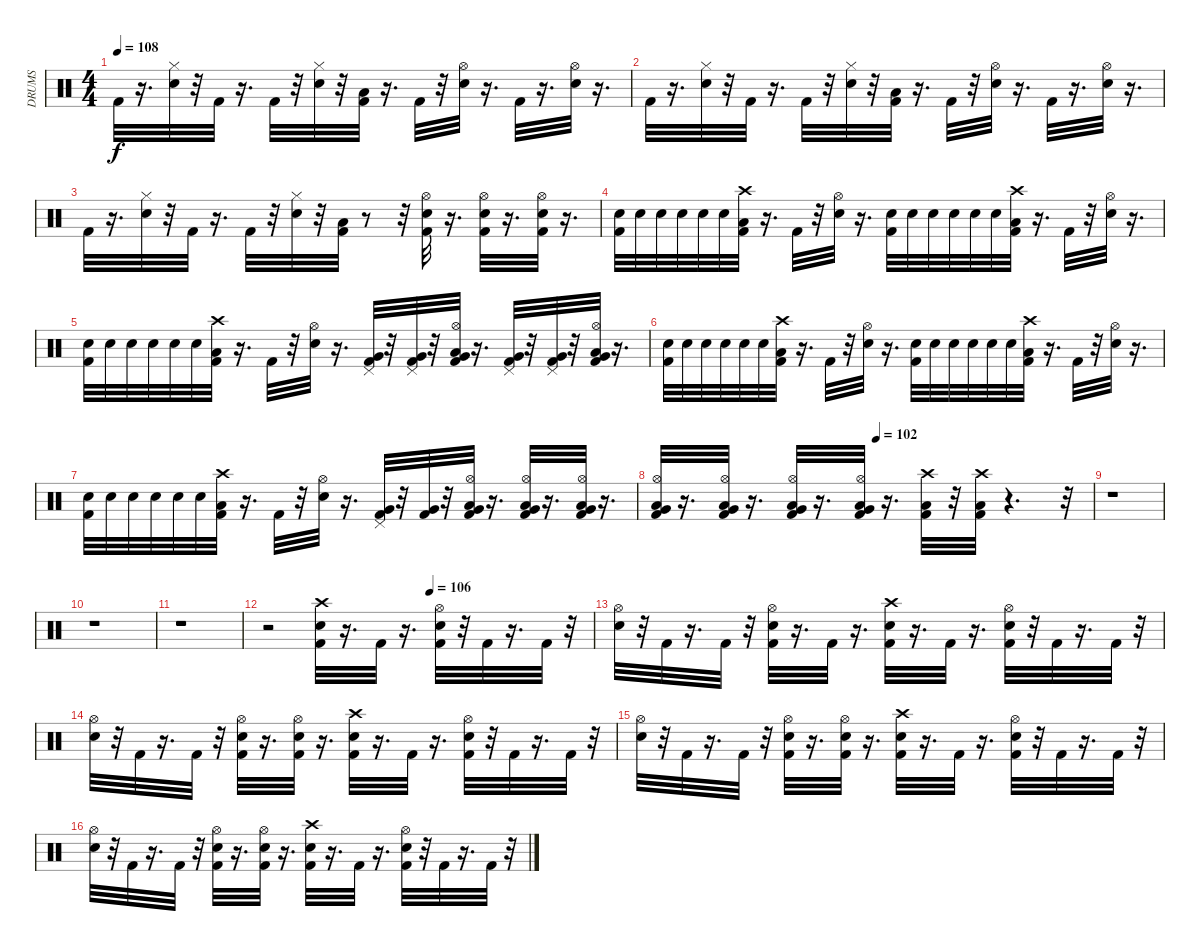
\track ("DRUMS" "DRUMS") {instrument percussion}
\staff {score}
\articulation defaults
\ts (4 4)
\tempo 108
\clef neutral
\ks c "Kick (hit) 2".32{dy f}
r.16{d} ("Electric Snare (hit)" "Hi-Hat (closed)").32 r.32 "Kick (hit) 2".32 r.16{d} "Kick (hit) 2".32 r.32 ("Electric Snare (hit)" "Hi-Hat (closed)").32 r.32 ("Kick (hit) 2" "Low Tom (hit)").32 r.16{d} "Kick (hit) 2".32 r.32 ("Electric Snare (hit)" "Hi-Hat (open)").32 r.16{d} "Kick (hit) 2".32 r.16{d} ("Electric Snare (hit)" "Hi-Hat (open)").32 r.16{d} |
"Kick (hit) 2".32 r.16{d} ("Electric Snare (hit)" "Hi-Hat (closed)").32 r.32 "Kick (hit) 2".32 r.16{d} "Kick (hit) 2".32 r.32 ("Electric Snare (hit)" "Hi-Hat (closed)").32 r.32 ("Kick (hit) 2" "Low Tom (hit)").32 r.16{d} "Kick (hit) 2".32 r.32 ("Electric Snare (hit)" "Hi-Hat (open)").32 r.16{d} "Kick (hit) 2".32 r.16{d} ("Electric Snare (hit)" "Hi-Hat (open)").32 r.16{d} |
"Kick (hit) 2".32 r.16{d} ("Electric Snare (hit)" "Hi-Hat (closed)").32 r.32 "Kick (hit) 2".32 r.16{d} "Kick (hit) 2".32 r.32 ("Electric Snare (hit)" "Hi-Hat (closed)").32 r.32 ("Kick (hit) 2" "Low Tom (hit)").32 r.8 r.32 ("Electric Snare (hit)" "Hi-Hat (open)" "Kick (hit) 2").32 r.16{d} ("Kick (hit) 2" "Electric Snare (hit)" "Hi-Hat (open)").32 r.16{d} ("Electric Snare (hit)" "Hi-Hat (open)" "Kick (hit) 2").32 r.16{d} |
("Kick (hit) 2" "Electric Snare (hit)").32 "Electric Snare (hit)".32 "Electric Snare (hit)".32 "Electric Snare (hit)".32 "Electric Snare (hit)".32 "Electric Snare (hit)".32 ("Kick (hit) 2" "Crash high (hit)" "Low Tom (hit)").32 r.16{d} "Kick (hit) 2".32 r.32 ("Electric Snare (hit)" "Hi-Hat (open)").32 r.16{d} ("Kick (hit) 2" "Electric Snare (hit)").32 "Electric Snare (hit)".32 "Electric Snare (hit)".32 "Electric Snare (hit)".32 "Electric Snare (hit)".32 "Electric Snare (hit)".32 ("Kick (hit) 2" "Crash high (hit)" "Low Tom (hit)").32 r.16{d} "Kick (hit) 2".32 r.32 ("Electric Snare (hit)" "Hi-Hat (open)").32 r.16{d} |
("Kick (hit) 2" "Electric Snare (hit)").32 "Electric Snare (hit)".32 "Electric Snare (hit)".32 "Electric Snare (hit)".32 "Electric Snare (hit)".32 "Electric Snare (hit)".32 ("Kick (hit) 2" "Crash high (hit)" "Low Tom (hit)").32 r.16{d} "Kick (hit) 2".32 r.32 ("Electric Snare (hit)" "Hi-Hat (open)").32 r.16{d} ("Kick (hit) 2" "Very Low Tom (hit)" "Pedal Hi-Hat (hit)").32 r.32 ("Kick (hit) 2" "Very Low Tom (hit)" "Pedal Hi-Hat (hit)").32 r.32 ("Kick (hit) 2" "Very Low Tom (hit)" "Hi-Hat (open)" "Low Floor Tom (hit)").32 r.16{d} ("Kick (hit) 2" "Very Low Tom (hit)" "Pedal Hi-Hat (hit)").32 r.32 ("Kick (hit) 2" "Very Low Tom (hit)" "Pedal Hi-Hat (hit)").32 r.32 ("Kick (hit) 2" "Very Low Tom (hit)" "Hi-Hat (open)" "Low Floor Tom (hit)").32 r.16{d} |
("Kick (hit) 2" "Electric Snare (hit)").32 "Electric Snare (hit)".32 "Electric Snare (hit)".32 "Electric Snare (hit)".32 "Electric Snare (hit)".32 "Electric Snare (hit)".32 ("Kick (hit) 2" "Crash high (hit)" "Low Tom (hit)").32 r.16{d} "Kick (hit) 2".32 r.32 ("Electric Snare (hit)" "Hi-Hat (open)").32 r.16{d} ("Kick (hit) 2" "Electric Snare (hit)").32 "Electric Snare (hit)".32 "Electric Snare (hit)".32 "Electric Snare (hit)".32 "Electric Snare (hit)".32 "Electric Snare (hit)".32 ("Kick (hit) 2" "Crash high (hit)" "Low Tom (hit)").32 r.16{d} "Kick (hit) 2".32 r.32 ("Electric Snare (hit)" "Hi-Hat (open)").32 r.16{d} |
("Kick (hit) 2" "Electric Snare (hit)").32 "Electric Snare (hit)".32 "Electric Snare (hit)".32 "Electric Snare (hit)".32 "Electric Snare (hit)".32 "Electric Snare (hit)".32 ("Kick (hit) 2" "Crash high (hit)" "Low Tom (hit)").32 r.16{d} "Kick (hit) 2".32 r.32 ("Electric Snare (hit)" "Hi-Hat (open)").32 r.16{d} ("Kick (hit) 2" "Very Low Tom (hit)" "Pedal Hi-Hat (hit)").32 r.32 ("Kick (hit) 2" "Very Low Tom (hit)").32 r.32 ("Kick (hit) 2" "Very Low Tom (hit)" "Hi-Hat (open)" "Low Tom (hit)").32 r.16{d} ("Kick (hit) 2" "Very Low Tom (hit)" "Hi-Hat (open)" "Low Tom (hit)").32 r.16{d} ("Kick (hit) 2" "Very Low Tom (hit)" "Hi-Hat (open)" "Low Tom (hit)").32 r.16{d} |
\tempo (102 0.5)
("Kick (hit) 2" "Very Low Tom (hit)" "Hi-Hat (open)" "Low Tom (hit)").32 r.16{d} ("Kick (hit) 2" "Very Low Tom (hit)" "Hi-Hat (open)" "Low Tom (hit)").32 r.16{d} ("Kick (hit) 2" "Very Low Tom (hit)" "Hi-Hat (open)" "Low Tom (hit)").32 r.16{d} ("Kick (hit) 2" "Very Low Tom (hit)" "Hi-Hat (open)" "Low Tom (hit)").32 r.16{d} ("Kick (hit) 2" "Low Tom (hit)" "Crash high (hit)").32 r.32 ("Kick (hit) 2" "Low Tom (hit)" "Crash high (hit)").32 r.4{d} r.32 |
r.1 |
r.1 |
r.1 |
\tempo (106 0.5)
r.2 ("Kick (hit) 2" "Electric Snare (hit)" "Crash high (hit)").32 r.16{d} "Kick (hit) 2".32 r.16{d} ("Kick (hit) 2" "Electric Snare (hit)" "Hi-Hat (open)").32 r.32 "Kick (hit) 2".32 r.16{d} "Kick (hit) 2".32 r.32 |
("Electric Snare (hit)" "Hi-Hat (open)").32 r.32 "Kick (hit) 2".32 r.16{d} "Kick (hit) 2".32 r.32 ("Kick (hit) 2" "Electric Snare (hit)" "Hi-Hat (open)").32 r.16{d} "Kick (hit) 2".32 r.16{d} ("Kick (hit) 2" "Electric Snare (hit)" "Crash high (hit)").32 r.16{d} "Kick (hit) 2".32 r.16{d} ("Kick (hit) 2" "Electric Snare (hit)" "Hi-Hat (open)").32 r.32 "Kick (hit) 2".32 r.16{d} "Kick (hit) 2".32 r.32 |
("Electric Snare (hit)" "Hi-Hat (open)").32 r.32 "Kick (hit) 2".32 r.16{d} "Kick (hit) 2".32 r.32 ("Kick (hit) 2" "Electric Snare (hit)" "Hi-Hat (open)").32 r.16{d} ("Kick (hit) 2" "Hi-Hat (open)" "Electric Snare (hit)").32 r.16{d} ("Kick (hit) 2" "Electric Snare (hit)" "Crash high (hit)").32 r.16{d} "Kick (hit) 2".32 r.16{d} ("Kick (hit) 2" "Electric Snare (hit)" "Hi-Hat (open)").32 r.32 "Kick (hit) 2".32 r.16{d} "Kick (hit) 2".32 r.32 |
("Electric Snare (hit)" "Hi-Hat (open)").32 r.32 "Kick (hit) 2".32 r.16{d} "Kick (hit) 2".32 r.32 ("Kick (hit) 2" "Electric Snare (hit)" "Hi-Hat (open)").32 r.16{d} ("Kick (hit) 2" "Hi-Hat (open)" "Electric Snare (hit)").32 r.16{d} ("Kick (hit) 2" "Electric Snare (hit)" "Crash high (hit)").32 r.16{d} "Kick (hit) 2".32 r.16{d} ("Kick (hit) 2" "Electric Snare (hit)" "Hi-Hat (open)").32 r.32 "Kick (hit) 2".32 r.16{d} "Kick (hit) 2".32 r.32 |
("Electric Snare (hit)" "Hi-Hat (open)").32 r.32 "Kick (hit) 2".32 r.16{d} "Kick (hit) 2".32 r.32 ("Kick (hit) 2" "Electric Snare (hit)" "Hi-Hat (open)").32 r.16{d} ("Kick (hit) 2" "Hi-Hat (open)" "Electric Snare (hit)").32 r.16{d} ("Kick (hit) 2" "Electric Snare (hit)" "Crash high (hit)").32 r.16{d} "Kick (hit) 2".32 r.16{d} ("Kick (hit) 2" "Electric Snare (hit)" "Hi-Hat (open)").32 r.32 "Kick (hit) 2".32 r.16{d} "Kick (hit) 2".32 r.32
